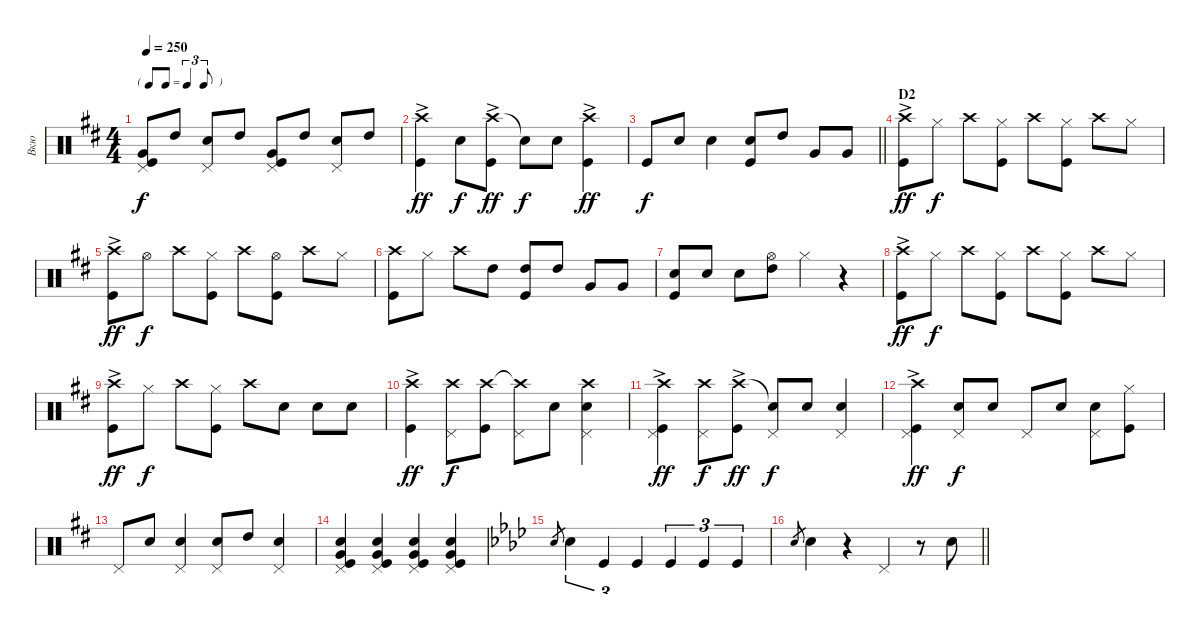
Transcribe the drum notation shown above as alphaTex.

\track ("Вкю" "Вкю") {instrument percussion}
\staff {score}
\articulation defaults
\ts (4 4)
\tf triplet8th
\tempo 250
\clef neutral
\ks d
("Very Low Tom (hit)" "Kick (hit)" "Pedal Hi-Hat (hit)").8{dy f} "High Tom (hit)".8 ("Snare (hit) 2" "Pedal Hi-Hat (hit)").8 "High Tom (hit)".8 ("Very Low Tom (hit)" "Kick (hit)" "Pedal Hi-Hat (hit)").8 "High Tom (hit)".8 ("Snare (hit) 2" "Pedal Hi-Hat (hit)").8 "High Tom (hit)".8 |
("Crash high (hit)"{ac} "Kick (hit)"{ac}).4{dy ff} "Snare (hit) 2".8{dy f} ("Crash high (hit)"{ac} "Kick (hit)"{ac}).8{dy ff} "Snare (hit)"{t}.8{dy f} "Snare (hit) 2".8 ("Crash high (hit)"{ac} "Kick (hit)"{ac}).4{dy ff} |
\barLineRight lightlight "Kick (hit)".8{dy f} "Snare (hit) 2".8 "Snare (hit) 2".4
("Snare (hit) 2" "Kick (hit)").8 "High Tom (hit)".8 "Very Low Tom (hit)".8 "Very Low Tom (hit)".8 |
\section ("" "D2")
("Crash high (hit)"{ac} "Kick (hit)"{ac}).8{dy ff} "Hi-Hat (closed)".8{dy f} "Crash high (hit)".8 ("Hi-Hat (closed)" "Kick (hit)").8 "Crash high (hit)".8 ("Hi-Hat (closed)" "Kick (hit)").8 "Crash high (hit)".8 "Hi-Hat (closed)".8 |
("Crash high (hit)"{ac} "Kick (hit)"{ac}).8{dy ff} "Hi-Hat (open)".8{dy f} "Crash high (hit)".8 ("Hi-Hat (closed)" "Kick (hit)").8 "Crash high (hit)".8 ("Hi-Hat (open)" "Kick (hit)").8 "Crash high (hit)".8 "Hi-Hat (closed)".8 |
("Crash high (hit)" "Kick (hit)").8 "Hi-Hat (closed)".8 "Crash high (hit)".8 "High Tom (hit)".8 ("High Tom (hit)" "Kick (hit)").8 "High Tom (hit)".8 "Very Low Tom (hit)".8 "Very Low Tom (hit)".8 |
("Snare (hit) 2" "Kick (hit)").8 "Snare (hit) 2".8 "Snare (hit) 2".8 ("Hi-Hat (open)" "High Tom (hit)").8 "Hi-Hat (closed)".4 r.4 |
("Crash high (hit)"{ac} "Kick (hit)"{ac}).8{dy ff} "Hi-Hat (closed)".8{dy f} "Crash high (hit)".8 ("Hi-Hat (closed)" "Kick (hit)").8 "Crash high (hit)".8 ("Hi-Hat (closed)" "Kick (hit)").8 "Crash high (hit)".8 "Hi-Hat (closed)".8 |
("Crash high (hit)"{ac} "Kick (hit)"{ac}).8{dy ff} "Hi-Hat (closed)".8{dy f} "Crash high (hit)".8 ("Hi-Hat (closed)" "Kick (hit)").8 "Crash high (hit)".8 "Snare (hit) 2".8 "Snare (hit) 2".8 "Snare (hit) 2".8 |
("Crash high (hit)"{ac} "Kick (hit)"{ac}).4{dy ff} ("Crash high (hit)" "Pedal Hi-Hat (hit)").8{dy f} ("Crash high (hit)" "Kick (hit)").8 ("Crash high (hit)"{t} "Pedal Hi-Hat (hit)").8 "Snare (hit) 2".8 ("Crash high (hit)" "Snare (hit) 2" "Pedal Hi-Hat (hit)").4 |
("Crash high (hit)"{ac} "Kick (hit)"{ac} "Pedal Hi-Hat (hit)"{ac}).4{dy ff} ("Crash high (hit)" "Pedal Hi-Hat (hit)").8{dy f} ("Crash high (hit)"{ac} "Kick (hit)"{ac}).8{dy ff} ("Snare (hit)"{t} "Pedal Hi-Hat (hit)").8{dy f} "Snare (hit) 2".8 ("Snare (hit) 2" "Pedal Hi-Hat (hit)").4 |
("Crash high (hit)"{ac} "Kick (hit)"{ac} "Pedal Hi-Hat (hit)"{ac}).4{dy ff} ("Snare (hit) 2" "Pedal Hi-Hat (hit)").8{dy f} "Snare (hit) 2".8 "Pedal Hi-Hat (hit)".8 "Snare (hit) 2".8 ("Snare (hit) 2" "Pedal Hi-Hat (hit)").8 ("Hi-Hat (closed)" "Kick (hit)").8 |
"Pedal Hi-Hat (hit)".8 "Snare (hit) 2".8 ("Snare (hit) 2" "Pedal Hi-Hat (hit)").4 ("Snare (hit) 2" "Pedal Hi-Hat (hit)").8 "High Tom (hit)".8 ("Snare (hit) 2" "Pedal Hi-Hat (hit)").4 |
("Very Low Tom (hit)" "Snare (hit) 2" "Kick (hit)" "Pedal Hi-Hat (hit)").4 ("Very Low Tom (hit)" "Snare (hit) 2" "Kick (hit)" "Pedal Hi-Hat (hit)").4 ("Very Low Tom (hit)" "Snare (hit) 2" "Kick (hit)" "Pedal Hi-Hat (hit)").4 ("Very Low Tom (hit)" "Snare (hit) 2" "Kick (hit)" "Pedal Hi-Hat (hit)").4 |
\ks ab "Snare (hit) 2".8{gr} "Snare (hit) 2".4{tu (3 2)} "Kick (hit)".4{tu (3 2)} "Kick (hit)".4{tu (3 2)} "Kick (hit)".4{tu (3 2)} "Kick (hit)".4{tu (3 2)} "Kick (hit)".4{tu (3 2)}
|
\barLineRight lightlight "Snare (hit) 2".8{gr} "Snare (hit) 2".4
r.4 "Pedal Hi-Hat (hit)".4 r.8 "Snare (hit) 2".8
